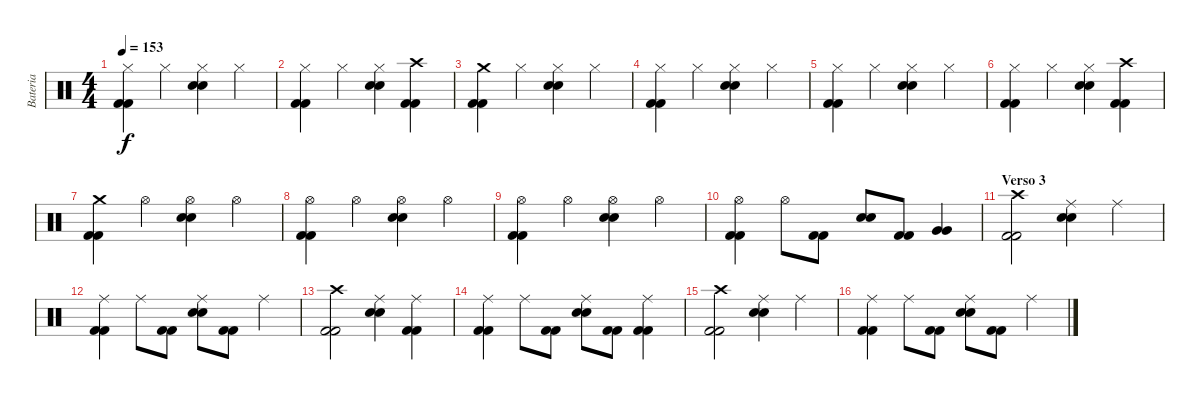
\track ("Bateria" "Bateria") {instrument percussion}
\staff {score}
\articulation defaults
\ts (4 4)
\tempo 153
\clef neutral
\ks c
("Hi-Hat (closed)" "Kick (hit) 2" "Kick (hit) 2").4{dy f} "Hi-Hat (closed)".4 ("Hi-Hat (closed)" "Snare (hit) 2" "Snare (hit) 2").4 "Hi-Hat (closed)".4 |
("Hi-Hat (closed)" "Kick (hit) 2" "Kick (hit) 2").4 "Hi-Hat (closed)".4 ("Hi-Hat (closed)" "Snare (hit) 2" "Snare (hit) 2").4 ("Crash high (hit)" "Kick (hit) 2" "Kick (hit) 2").4 |
("Crash medium (hit)" "Kick (hit) 2" "Kick (hit) 2").4 "Hi-Hat (closed)".4 ("Hi-Hat (closed)" "Snare (hit) 2" "Snare (hit) 2").4 "Hi-Hat (closed)".4 |
("Hi-Hat (closed)" "Kick (hit) 2" "Kick (hit) 2").4 "Hi-Hat (closed)".4 ("Hi-Hat (closed)" "Snare (hit) 2" "Snare (hit) 2").4 "Hi-Hat (closed)".4 |
("Hi-Hat (closed)" "Kick (hit) 2" "Kick (hit) 2").4 "Hi-Hat (closed)".4 ("Hi-Hat (closed)" "Snare (hit) 2" "Snare (hit) 2").4 "Hi-Hat (closed)".4 |
("Hi-Hat (closed)" "Kick (hit) 2" "Kick (hit) 2").4 "Hi-Hat (closed)".4 ("Hi-Hat (closed)" "Snare (hit) 2" "Snare (hit) 2").4 ("Crash high (hit)" "Kick (hit) 2" "Kick (hit) 2").4 |
("Crash medium (hit)" "Kick (hit) 2" "Kick (hit) 2").4 "Hi-Hat (open)".4 ("Hi-Hat (open)" "Snare (hit) 2" "Snare (hit) 2").4 "Hi-Hat (open)".4 |
("Hi-Hat (open)" "Kick (hit) 2" "Kick (hit) 2").4 "Hi-Hat (open)".4 ("Hi-Hat (open)" "Snare (hit) 2" "Snare (hit) 2").4 "Hi-Hat (open)".4 |
("Hi-Hat (open)" "Kick (hit) 2" "Kick (hit) 2").4 "Hi-Hat (open)".4 ("Hi-Hat (open)" "Snare (hit) 2" "Snare (hit) 2").4 "Hi-Hat (open)".4 |
("Hi-Hat (open)" "Kick (hit) 2" "Kick (hit) 2").4 "Hi-Hat (open)".8 ("Kick (hit) 2" "Kick (hit) 2").8 ("Snare (hit) 2" "Snare (hit) 2").8 ("Kick (hit) 2" "Kick (hit) 2").8 ("Very Low Tom (hit)" "Very Low Tom (hit)").4 |
\section ("" "Verso 3")
("Crash high (hit)" "Kick (hit) 2" "Kick (hit) 2").2 ("Ride (middle)" "Snare (hit) 2" "Snare (hit) 2").4 "Ride (middle)".4 |
("Ride (middle)" "Kick (hit) 2" "Kick (hit) 2").4 "Ride (middle)".8 ("Kick (hit) 2" "Kick (hit) 2").8 ("Ride (middle)" "Snare (hit) 2" "Snare (hit) 2").8 ("Kick (hit) 2" "Kick (hit) 2").8 "Ride (middle)".4 |
("Crash high (hit)" "Kick (hit) 2" "Kick (hit) 2").2 ("Ride (middle)" "Snare (hit) 2" "Snare (hit) 2").4 ("Ride (middle)" "Kick (hit) 2" "Kick (hit) 2").4 |
("Ride (middle)" "Kick (hit) 2" "Kick (hit) 2").4 "Ride (middle)".8 ("Kick (hit) 2" "Kick (hit) 2").8 ("Ride (middle)" "Snare (hit) 2" "Snare (hit) 2").8 ("Kick (hit) 2" "Kick (hit) 2").8 ("Ride (middle)" "Kick (hit) 2" "Kick (hit) 2").4 |
("Crash high (hit)" "Kick (hit) 2" "Kick (hit) 2").2 ("Ride (middle)" "Snare (hit) 2" "Snare (hit) 2").4 "Ride (middle)".4 |
("Ride (middle)" "Kick (hit) 2" "Kick (hit) 2").4 "Ride (middle)".8 ("Kick (hit) 2" "Kick (hit) 2").8 ("Ride (middle)" "Snare (hit) 2" "Snare (hit) 2").8 ("Kick (hit) 2" "Kick (hit) 2").8 "Ride (middle)".4
